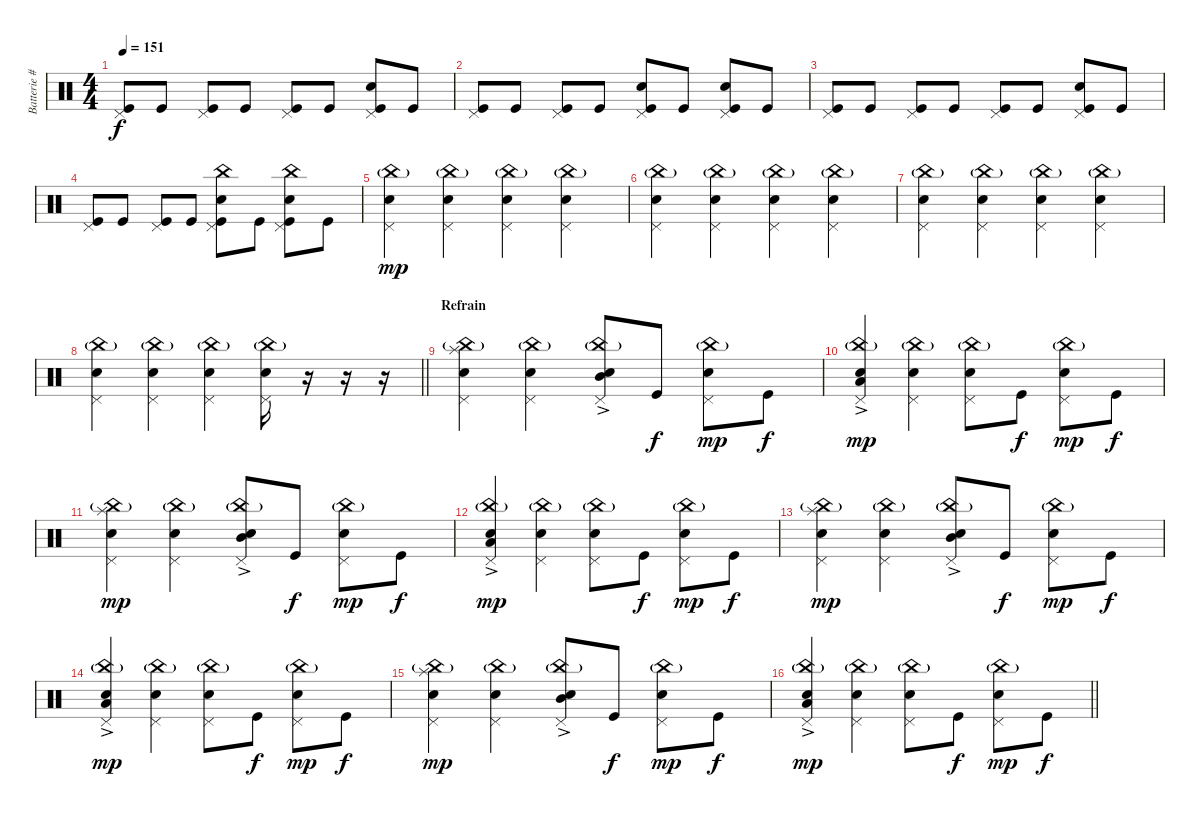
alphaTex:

\track ("Batterie # S.Hewitt" "Batterie #") {instrument percussion}
\staff {score}
\articulation defaults
\ts (4 4)
\tempo 151
\clef neutral
\ks c
("Kick (hit)" "Pedal Hi-Hat (hit)").8{dy f} "Kick (hit)".8 ("Kick (hit)" "Pedal Hi-Hat (hit)").8 "Kick (hit)".8 ("Kick (hit)" "Pedal Hi-Hat (hit)").8 "Kick (hit)".8 ("Kick (hit)" "Pedal Hi-Hat (hit)" "Electric Snare (hit)").8 "Kick (hit)".8 |
("Kick (hit)" "Pedal Hi-Hat (hit)").8 "Kick (hit)".8 ("Kick (hit)" "Pedal Hi-Hat (hit)").8 "Kick (hit)".8 ("Kick (hit)" "Pedal Hi-Hat (hit)" "Electric Snare (hit)").8 "Kick (hit)".8 ("Kick (hit)" "Pedal Hi-Hat (hit)" "Electric Snare (hit)").8 "Kick (hit)".8 |
("Kick (hit)" "Pedal Hi-Hat (hit)").8 "Kick (hit)".8 ("Kick (hit)" "Pedal Hi-Hat (hit)").8 "Kick (hit)".8 ("Kick (hit)" "Pedal Hi-Hat (hit)").8 "Kick (hit)".8 ("Kick (hit)" "Pedal Hi-Hat (hit)" "Electric Snare (hit)").8 "Kick (hit)".8 |
("Kick (hit)" "Pedal Hi-Hat (hit)").8 "Kick (hit)".8 ("Kick (hit)" "Pedal Hi-Hat (hit)").8 "Kick (hit)".8 ("Kick (hit)" "Pedal Hi-Hat (hit)" "Electric Snare (hit)" "China (hit)").8 "Kick (hit)".8 ("Kick (hit)" "Pedal Hi-Hat (hit)" "Electric Snare (hit)" "China (hit)").8 "Kick (hit)".8 |
("China (hit)"{g} "Electric Snare (hit)" "Pedal Hi-Hat (hit)").4{dy mp} ("China (hit)"{g} "Electric Snare (hit)" "Pedal Hi-Hat (hit)").4 ("China (hit)"{g} "Electric Snare (hit)" "Pedal Hi-Hat (hit)").4 ("China (hit)"{g} "Electric Snare (hit)" "Pedal Hi-Hat (hit)").4 |
("China (hit)"{g} "Electric Snare (hit)" "Pedal Hi-Hat (hit)").4 ("China (hit)"{g} "Electric Snare (hit)" "Pedal Hi-Hat (hit)").4 ("China (hit)"{g} "Electric Snare (hit)" "Pedal Hi-Hat (hit)").4 ("China (hit)"{g} "Electric Snare (hit)" "Pedal Hi-Hat (hit)").4 |
("China (hit)"{g} "Electric Snare (hit)" "Pedal Hi-Hat (hit)").4 ("China (hit)"{g} "Electric Snare (hit)" "Pedal Hi-Hat (hit)").4 ("China (hit)"{g} "Electric Snare (hit)" "Pedal Hi-Hat (hit)").4 ("China (hit)"{g} "Electric Snare (hit)" "Pedal Hi-Hat (hit)").4 |
\barLineRight lightlight
("China (hit)"{g} "Electric Snare (hit)" "Pedal Hi-Hat (hit)").4 ("China (hit)"{g} "Electric Snare (hit)" "Pedal Hi-Hat (hit)").4 ("China (hit)"{g} "Electric Snare (hit)" "Pedal Hi-Hat (hit)").4 ("China (hit)"{g} "Electric Snare (hit)" "Pedal Hi-Hat (hit)").16 r.16 r.16 r.16 |
\section ("" "Refrain")
("Splash (hit)" "China (hit)"{g} "Electric Snare (hit)" "Pedal Hi-Hat (hit)").4 ("China (hit)"{g} "Electric Snare (hit)" "Pedal Hi-Hat (hit)").4 ("Mid Tom (hit)"{ac} "China (hit)"{g} "Electric Snare (hit)" "Pedal Hi-Hat (hit)").8 "Kick (hit)".8{dy f} ("China (hit)"{g} "Electric Snare (hit)" "Pedal Hi-Hat (hit)").8{dy mp} "Kick (hit)".8{dy f} |
("Low Tom (hit)"{ac} "China (hit)"{g} "Electric Snare (hit)" "Pedal Hi-Hat (hit)").4{dy mp} ("China (hit)"{g} "Electric Snare (hit)" "Pedal Hi-Hat (hit)").4 ("China (hit)"{g} "Electric Snare (hit)" "Pedal Hi-Hat (hit)").8 "Kick (hit)".8{dy f} ("China (hit)"{g} "Electric Snare (hit)" "Pedal Hi-Hat (hit)").8{dy mp} "Kick (hit)".8{dy f} |
("Splash (hit)" "China (hit)"{g} "Electric Snare (hit)" "Pedal Hi-Hat (hit)").4{dy mp} ("China (hit)"{g} "Electric Snare (hit)" "Pedal Hi-Hat (hit)").4 ("Mid Tom (hit)"{ac} "China (hit)"{g} "Electric Snare (hit)" "Pedal Hi-Hat (hit)").8 "Kick (hit)".8{dy f} ("China (hit)"{g} "Electric Snare (hit)" "Pedal Hi-Hat (hit)").8{dy mp} "Kick (hit)".8{dy f} |
("Low Tom (hit)"{ac} "China (hit)"{g} "Electric Snare (hit)" "Pedal Hi-Hat (hit)").4{dy mp} ("China (hit)"{g} "Electric Snare (hit)" "Pedal Hi-Hat (hit)").4 ("China (hit)"{g} "Electric Snare (hit)" "Pedal Hi-Hat (hit)").8 "Kick (hit)".8{dy f} ("China (hit)"{g} "Electric Snare (hit)" "Pedal Hi-Hat (hit)").8{dy mp} "Kick (hit)".8{dy f} |
("Splash (hit)" "China (hit)"{g} "Electric Snare (hit)" "Pedal Hi-Hat (hit)").4{dy mp} ("China (hit)"{g} "Electric Snare (hit)" "Pedal Hi-Hat (hit)").4 ("Mid Tom (hit)"{ac} "China (hit)"{g} "Electric Snare (hit)" "Pedal Hi-Hat (hit)").8 "Kick (hit)".8{dy f} ("China (hit)"{g} "Electric Snare (hit)" "Pedal Hi-Hat (hit)").8{dy mp} "Kick (hit)".8{dy f} |
("Low Tom (hit)"{ac} "China (hit)"{g} "Electric Snare (hit)" "Pedal Hi-Hat (hit)").4{dy mp} ("China (hit)"{g} "Electric Snare (hit)" "Pedal Hi-Hat (hit)").4 ("China (hit)"{g} "Electric Snare (hit)" "Pedal Hi-Hat (hit)").8 "Kick (hit)".8{dy f} ("China (hit)"{g} "Electric Snare (hit)" "Pedal Hi-Hat (hit)").8{dy mp} "Kick (hit)".8{dy f} |
("Splash (hit)" "China (hit)"{g} "Electric Snare (hit)" "Pedal Hi-Hat (hit)").4{dy mp} ("China (hit)"{g} "Electric Snare (hit)" "Pedal Hi-Hat (hit)").4 ("Mid Tom (hit)"{ac} "China (hit)"{g} "Electric Snare (hit)" "Pedal Hi-Hat (hit)").8 "Kick (hit)".8{dy f} ("China (hit)"{g} "Electric Snare (hit)" "Pedal Hi-Hat (hit)").8{dy mp} "Kick (hit)".8{dy f} |
\barLineRight lightlight
("Low Tom (hit)"{ac} "China (hit)"{g} "Electric Snare (hit)" "Pedal Hi-Hat (hit)").4{dy mp} ("China (hit)"{g} "Electric Snare (hit)" "Pedal Hi-Hat (hit)").4 ("China (hit)"{g} "Electric Snare (hit)" "Pedal Hi-Hat (hit)").8 "Kick (hit)".8{dy f} ("China (hit)"{g} "Electric Snare (hit)" "Pedal Hi-Hat (hit)").8{dy mp} "Kick (hit)".8{dy f}
